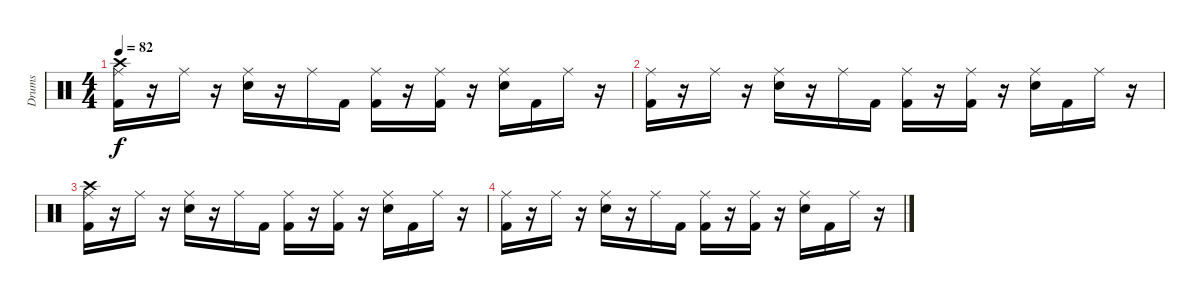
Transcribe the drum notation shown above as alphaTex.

\track ("Drums" "Drums") {instrument percussion}
\staff {score}
\articulation defaults
\ts (4 4)
\tempo 82
\clef neutral
\ks c
("Crash high (hit)" "Ride (middle)" "Kick (hit) 2").16{dy f} r.16 "Ride (middle)".16 r.16 ("Ride (middle)" "Snare (hit) 2").16 r.16 "Ride (middle)".16 "Kick (hit) 2".16 ("Ride (middle)" "Kick (hit) 2").16 r.16 ("Ride (middle)" "Kick (hit) 2").16 r.16 ("Ride (middle)" "Snare (hit) 2").16 "Kick (hit) 2".16 "Ride (middle)".16 r.16 |
("Ride (middle)" "Kick (hit) 2").16 r.16 "Ride (middle)".16 r.16 ("Ride (middle)" "Snare (hit) 2").16 r.16 "Ride (middle)".16 "Kick (hit) 2".16 ("Ride (middle)" "Kick (hit) 2").16 r.16 ("Ride (middle)" "Kick (hit) 2").16 r.16 ("Ride (middle)" "Snare (hit) 2").16 "Kick (hit) 2".16 "Ride (middle)".16 r.16 |
("Crash high (hit)" "Ride (middle)" "Kick (hit) 2").16 r.16 "Ride (middle)".16 r.16 ("Ride (middle)" "Snare (hit) 2").16 r.16 "Ride (middle)".16 "Kick (hit) 2".16 ("Ride (middle)" "Kick (hit) 2").16 r.16 ("Ride (middle)" "Kick (hit) 2").16 r.16 ("Ride (middle)" "Snare (hit) 2").16 "Kick (hit) 2".16 "Ride (middle)".16 r.16 |
("Ride (middle)" "Kick (hit) 2").16 r.16 "Ride (middle)".16 r.16 ("Ride (middle)" "Snare (hit) 2").16 r.16 "Ride (middle)".16 "Kick (hit) 2".16 ("Ride (middle)" "Kick (hit) 2").16 r.16 ("Ride (middle)" "Kick (hit) 2").16 r.16 ("Ride (middle)" "Snare (hit) 2").16 "Kick (hit) 2".16 "Ride (middle)".16 r.16
